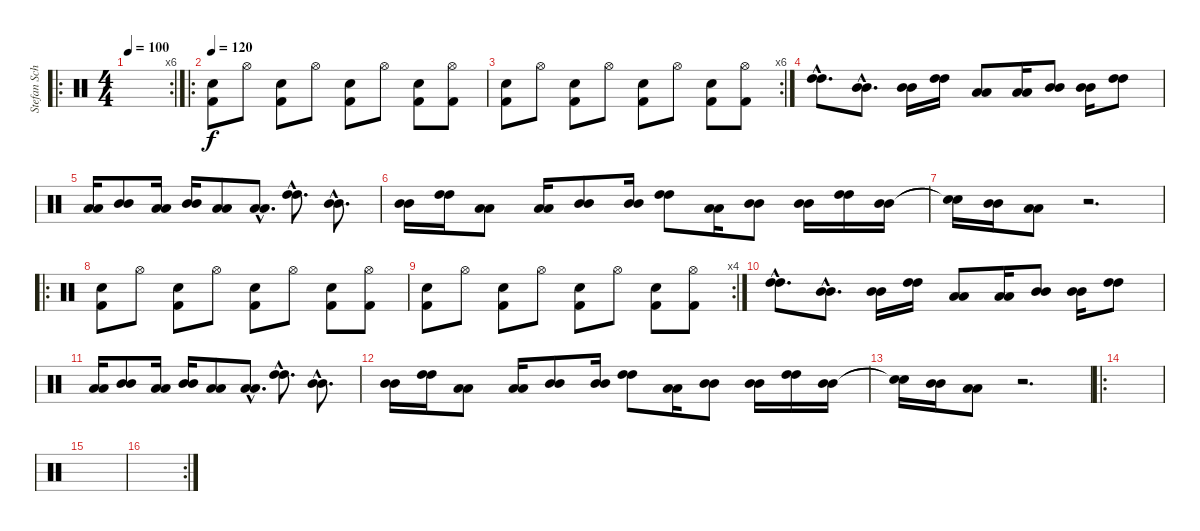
\track ("Stefan Schwarzmann" "Stefan Sch") {instrument percussion}
\staff {score}
\articulation defaults
\ro
\rc 6
\ts (4 4)
\tempo 100
\clef neutral
\ks c
|
\ro
\tempo 120
("Electric Snare (hit)" "Kick (hit) 2").8 "Hi-Hat (open)".8 ("Electric Snare (hit)" "Kick (hit) 2").8 "Hi-Hat (open)".8 ("Electric Snare (hit)" "Kick (hit) 2").8 "Hi-Hat (open)".8 ("Electric Snare (hit)" "Kick (hit) 2").8 ("Hi-Hat (open)" "Kick (hit) 2").8 |
\rc 6
("Electric Snare (hit)" "Kick (hit) 2").8 "Hi-Hat (open)".8 ("Electric Snare (hit)" "Kick (hit) 2").8 "Hi-Hat (open)".8 ("Electric Snare (hit)" "Kick (hit) 2").8 "Hi-Hat (open)".8 ("Electric Snare (hit)" "Kick (hit) 2").8 ("Hi-Hat (open)" "Kick (hit) 2").8 |
("High Tom (hit)"{hac} "High Tom (hit)"{hac}).8{d} ("Mid Tom (hit)"{hac} "Mid Tom (hit)"{hac}).8{d} ("Mid Tom (hit)" "Mid Tom (hit)").16 ("High Tom (hit)" "High Tom (hit)").16 ("Low Tom (hit)" "Low Tom (hit)").8 ("Low Tom (hit)" "Low Tom (hit)").16 ("Mid Tom (hit)" "Mid Tom (hit)").8 ("Mid Tom (hit)" "Mid Tom (hit)").16 ("High Tom (hit)" "High Tom (hit)").8 |
("Low Tom (hit)" "Low Tom (hit)").16 ("Mid Tom (hit)" "Mid Tom (hit)").8 ("Low Tom (hit)" "Low Tom (hit)").16 ("Mid Tom (hit)" "Mid Tom (hit)").16 ("Low Tom (hit)" "Low Tom (hit)").8 ("Low Tom (hit)"{hac} "Low Tom (hit)"{hac}).8{d} ("High Tom (hit)"{hac} "High Tom (hit)"{hac}).8{d} ("Mid Tom (hit)"{hac} "Mid Tom (hit)"{hac}).8{d} |
("Mid Tom (hit)" "Mid Tom (hit)").16 ("High Tom (hit)" "High Tom (hit)").16 ("Low Tom (hit)" "Low Tom (hit)").8 ("Low Tom (hit)" "Low Tom (hit)").16 ("Mid Tom (hit)" "Mid Tom (hit)").8 ("Mid Tom (hit)" "Mid Tom (hit)").16 ("High Tom (hit)" "High Tom (hit)").8 ("Low Tom (hit)" "Low Tom (hit)").16 ("Mid Tom (hit)" "Mid Tom (hit)").8 ("Mid Tom (hit)" "Mid Tom (hit)").16 ("High Tom (hit)" "High Tom (hit)").16 ("Mid Tom (hit)" "Mid Tom (hit)").16 |
("Snare (hit)"{t} "Snare (hit)"{t}).16 ("Mid Tom (hit)" "Mid Tom (hit)").16 ("Low Tom (hit)" "Low Tom (hit)").8 r.2{d} |
\ro
("Electric Snare (hit)" "Kick (hit) 2").8 "Hi-Hat (open)".8 ("Electric Snare (hit)" "Kick (hit) 2").8 "Hi-Hat (open)".8 ("Electric Snare (hit)" "Kick (hit) 2").8 "Hi-Hat (open)".8 ("Electric Snare (hit)" "Kick (hit) 2").8 ("Hi-Hat (open)" "Kick (hit) 2").8 |
\rc 4
("Electric Snare (hit)" "Kick (hit) 2").8 "Hi-Hat (open)".8 ("Electric Snare (hit)" "Kick (hit) 2").8 "Hi-Hat (open)".8 ("Electric Snare (hit)" "Kick (hit) 2").8 "Hi-Hat (open)".8 ("Electric Snare (hit)" "Kick (hit) 2").8 ("Hi-Hat (open)" "Kick (hit) 2").8 |
("High Tom (hit)"{hac} "High Tom (hit)"{hac}).8{d} ("Mid Tom (hit)"{hac} "Mid Tom (hit)"{hac}).8{d} ("Mid Tom (hit)" "Mid Tom (hit)").16 ("High Tom (hit)" "High Tom (hit)").16 ("Low Tom (hit)" "Low Tom (hit)").8 ("Low Tom (hit)" "Low Tom (hit)").16 ("Mid Tom (hit)" "Mid Tom (hit)").8 ("Mid Tom (hit)" "Mid Tom (hit)").16 ("High Tom (hit)" "High Tom (hit)").8 |
("Low Tom (hit)" "Low Tom (hit)").16 ("Mid Tom (hit)" "Mid Tom (hit)").8 ("Low Tom (hit)" "Low Tom (hit)").16 ("Mid Tom (hit)" "Mid Tom (hit)").16 ("Low Tom (hit)" "Low Tom (hit)").8 ("Low Tom (hit)"{hac} "Low Tom (hit)"{hac}).8{d} ("High Tom (hit)"{hac} "High Tom (hit)"{hac}).8{d} ("Mid Tom (hit)"{hac} "Mid Tom (hit)"{hac}).8{d} |
("Mid Tom (hit)" "Mid Tom (hit)").16 ("High Tom (hit)" "High Tom (hit)").16 ("Low Tom (hit)" "Low Tom (hit)").8 ("Low Tom (hit)" "Low Tom (hit)").16 ("Mid Tom (hit)" "Mid Tom (hit)").8 ("Mid Tom (hit)" "Mid Tom (hit)").16 ("High Tom (hit)" "High Tom (hit)").8 ("Low Tom (hit)" "Low Tom (hit)").16 ("Mid Tom (hit)" "Mid Tom (hit)").8 ("Mid Tom (hit)" "Mid Tom (hit)").16 ("High Tom (hit)" "High Tom (hit)").16 ("Mid Tom (hit)" "Mid Tom (hit)").16 |
("Snare (hit)"{t} "Snare (hit)"{t}).16 ("Mid Tom (hit)" "Mid Tom (hit)").16 ("Low Tom (hit)" "Low Tom (hit)").8 r.2{d} |
\ro
|
|
\rc 2
